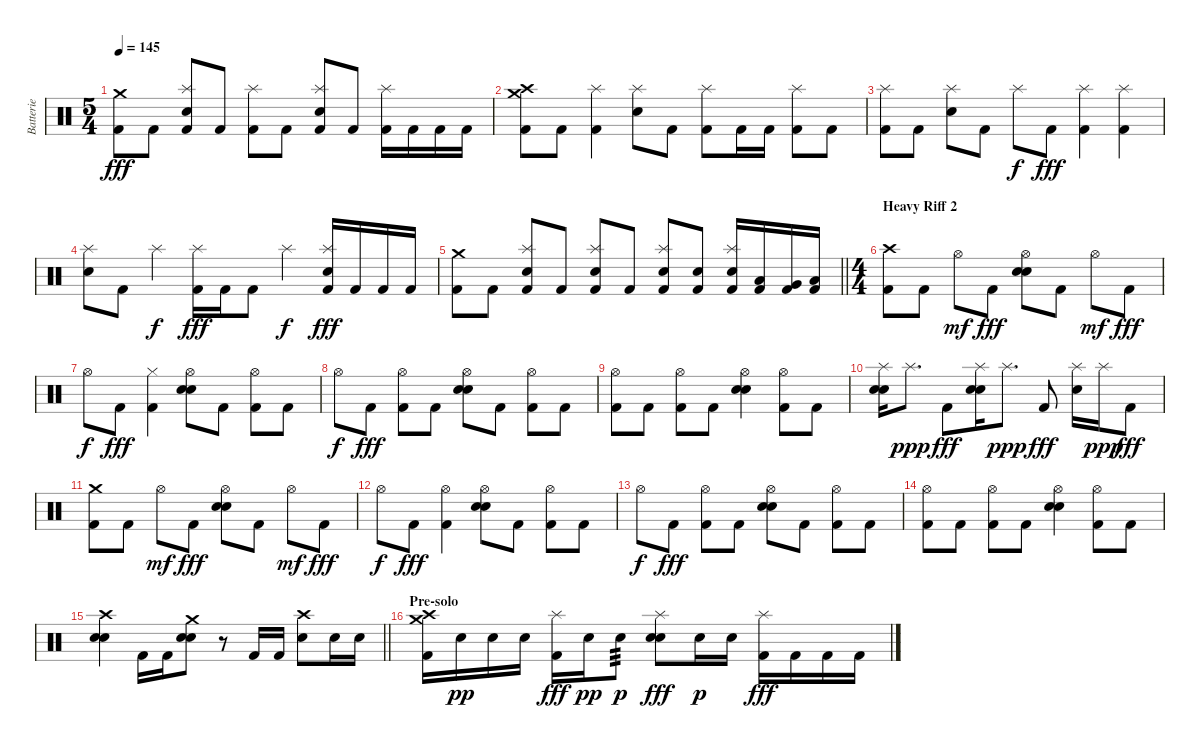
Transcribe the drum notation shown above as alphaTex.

\track ("Batterie" "Batterie") {instrument percussion}
\staff {score}
\articulation defaults
\ts (5 4)
\tempo 145
\clef neutral
\ks c
("Crash medium (hit)" "Kick (hit) 2").8{dy fff} "Kick (hit) 2".8 ("Splash (hit)" "Electric Snare (hit)" "Kick (hit) 2").8 "Kick (hit) 2".8 ("Splash (hit)" "Kick (hit) 2").8 "Kick (hit) 2".8 ("Splash (hit)" "Electric Snare (hit)" "Kick (hit) 2").8 "Kick (hit) 2".8 ("Splash (hit)" "Kick (hit) 2").16 "Kick (hit) 2".16 "Kick (hit) 2".16 "Kick (hit) 2".16 |
("Crash high (hit)" "Crash medium (hit)" "Kick (hit) 2").8 "Kick (hit) 2".8 ("Splash (hit)" "Kick (hit) 2").4 ("Splash (hit)" "Electric Snare (hit)").8 "Kick (hit) 2".8 ("Splash (hit)" "Kick (hit) 2").8 "Kick (hit) 2".16 "Kick (hit) 2".16 ("Splash (hit)" "Kick (hit) 2").8 "Kick (hit) 2".8 |
("Splash (hit)" "Kick (hit) 2").8 "Kick (hit) 2".8 ("Splash (hit)" "Electric Snare (hit)").8 "Kick (hit) 2".8 "Splash (hit)".8{dy f} "Kick (hit) 2".8{dy fff} ("Splash (hit)" "Kick (hit) 2").4 ("Splash (hit)" "Kick (hit) 2").4 |
("Splash (hit)" "Electric Snare (hit)").8 "Kick (hit) 2".8 "Splash (hit)".4{dy f} ("Splash (hit)" "Kick (hit) 2").16{dy fff} "Kick (hit) 2".16 "Kick (hit) 2".8 "Splash (hit)".4{dy f} ("Splash (hit)" "Electric Snare (hit)" "Kick (hit) 2").16{dy fff} "Kick (hit) 2".16 "Kick (hit) 2".16 "Kick (hit) 2".16 |
\barLineRight lightlight
("Crash medium (hit)" "Kick (hit) 2").8 "Kick (hit) 2".8 ("Splash (hit)" "Electric Snare (hit)" "Kick (hit) 2").8 "Kick (hit) 2".8 ("Splash (hit)" "Electric Snare (hit)" "Kick (hit) 2").8 "Kick (hit) 2".8 ("Splash (hit)" "Electric Snare (hit)" "Kick (hit) 2").8 ("Electric Snare (hit)" "Kick (hit) 2").8 ("Splash (hit)" "Electric Snare (hit)" "Kick (hit) 2").16 ("Low Tom (hit)" "Kick (hit) 2").16 ("Very Low Tom (hit)" "Kick (hit) 2").16 ("Low Floor Tom (hit)" "Kick (hit) 2").16 |
\ts (4 4)
\section ("" "Heavy Riff 2")
("Crash high (hit)" "Kick (hit) 2").8 "Kick (hit) 2".8 "Hi-Hat (open)".8{dy mf} "Kick (hit) 2".8{dy fff} ("Hi-Hat (open)" "Electric Snare (hit)" "Electric Snare (hit)").8 "Kick (hit) 2".8 "Hi-Hat (open)".8{dy mf} "Kick (hit) 2".8{dy fff} |
"Hi-Hat (open)".8{dy f} "Kick (hit) 2".8{dy fff} ("Hi-Hat (closed)" "Kick (hit) 2").4 ("Hi-Hat (open)" "Electric Snare (hit)" "Electric Snare (hit)").8 "Kick (hit) 2".8 ("Hi-Hat (open)" "Kick (hit) 2").8 "Kick (hit) 2".8 |
"Hi-Hat (open)".8{dy f} "Kick (hit) 2".8{dy fff} ("Hi-Hat (open)" "Kick (hit) 2").8 "Kick (hit) 2".8 ("Hi-Hat (open)" "Electric Snare (hit)" "Electric Snare (hit)").8 "Kick (hit) 2".8 ("Hi-Hat (open)" "Kick (hit) 2").8 "Kick (hit) 2".8 |
("Hi-Hat (open)" "Kick (hit) 2").8 "Kick (hit) 2".8 ("Hi-Hat (open)" "Kick (hit) 2").8 "Kick (hit) 2".8 ("Hi-Hat (open)" "Electric Snare (hit)" "Electric Snare (hit)").4 ("Hi-Hat (open)" "Kick (hit) 2").8 "Kick (hit) 2".8 |
("Splash (hit)" "Electric Snare (hit)" "Electric Snare (hit)").16 "Splash (hit)".8{d dy ppp} "Kick (hit) 2".8{dy fff} ("Splash (hit)" "Electric Snare (hit)" "Electric Snare (hit)").16 "Splash (hit)".8{d dy ppp} "Kick (hit) 2".8{dy fff} ("Splash (hit)" "Electric Snare (hit)").16 "Splash (hit)".16{dy ppp} "Kick (hit) 2".8{dy fff} |
("Crash medium (hit)" "Kick (hit) 2").8 "Kick (hit) 2".8 "Hi-Hat (open)".8{dy mf} "Kick (hit) 2".8{dy fff} ("Hi-Hat (open)" "Electric Snare (hit)" "Electric Snare (hit)").8 "Kick (hit) 2".8 "Hi-Hat (open)".8{dy mf} "Kick (hit) 2".8{dy fff} |
"Hi-Hat (open)".8{dy f} "Kick (hit) 2".8{dy fff} ("Hi-Hat (open)" "Kick (hit) 2").4 ("Hi-Hat (open)" "Electric Snare (hit)" "Electric Snare (hit)").8 "Kick (hit) 2".8 ("Hi-Hat (open)" "Kick (hit) 2").8 "Kick (hit) 2".8 |
"Hi-Hat (open)".8{dy f} "Kick (hit) 2".8{dy fff} ("Hi-Hat (open)" "Kick (hit) 2").8 "Kick (hit) 2".8 ("Hi-Hat (open)" "Electric Snare (hit)" "Electric Snare (hit)").8 "Kick (hit) 2".8 ("Hi-Hat (open)" "Kick (hit) 2").8 "Kick (hit) 2".8 |
("Hi-Hat (open)" "Kick (hit) 2").8 "Kick (hit) 2".8 ("Hi-Hat (open)" "Kick (hit) 2").8 "Kick (hit) 2".8 ("Hi-Hat (open)" "Electric Snare (hit)" "Electric Snare (hit)").4 ("Hi-Hat (open)" "Kick (hit) 2").8 "Kick (hit) 2".8 |
\barLineRight lightlight
("Crash high (hit)" "Electric Snare (hit)" "Electric Snare (hit)").4 "Kick (hit) 2".16 "Kick (hit) 2".16 ("Crash medium (hit)" "Electric Snare (hit)" "Electric Snare (hit)").8 r.8 "Kick (hit) 2".16 "Kick (hit) 2".16 ("Crash high (hit)" "Electric Snare (hit)").8 "Electric Snare (hit)".16 "Electric Snare (hit)".16 |
\section ("" "Pre-solo")
("Crash high (hit)" "Crash medium (hit)" "Kick (hit) 2").16 "Electric Snare (hit)".16{dy pp} "Electric Snare (hit)".16 "Electric Snare (hit)".16 ("Splash (hit)" "Kick (hit) 2").16{dy fff} "Electric Snare (hit)".16{dy pp} "Electric Snare (hit)".8{tp 3 dy p} ("Splash (hit)" "Electric Snare (hit)" "Electric Snare (hit)").8{dy fff} "Electric Snare (hit)".16{dy p} "Electric Snare (hit)".16 ("Splash (hit)" "Kick (hit) 2").16{dy fff} "Kick (hit) 2".16 "Kick (hit) 2".16 "Kick (hit) 2".16
